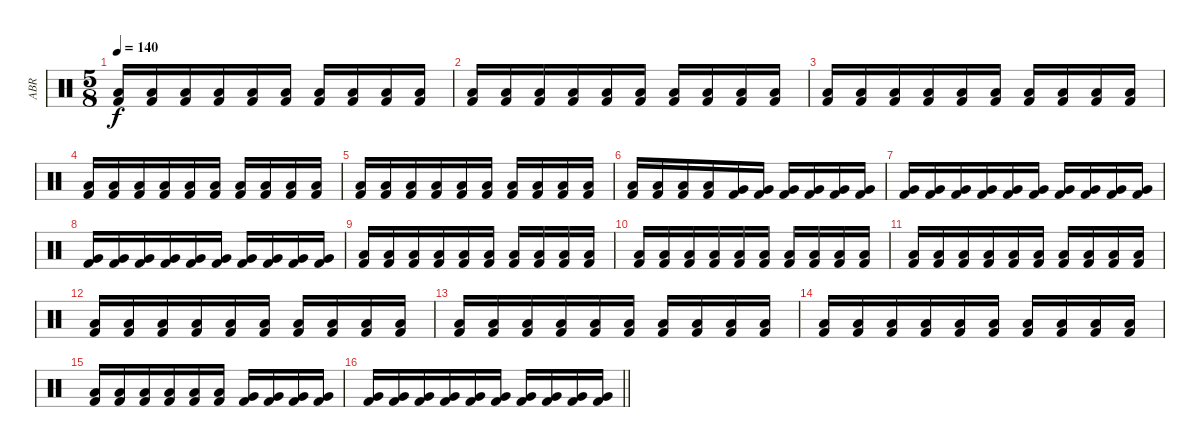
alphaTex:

\track ("ABR" "ABR") {instrument percussion}
\staff {score}
\articulation defaults
\ts (5 8)
\tempo 140
\clef neutral
\ks c
("Low Floor Tom (hit)" "Kick (hit) 2").16{dy f volume 4} ("Low Floor Tom (hit)" "Kick (hit) 2").16 ("Low Floor Tom (hit)" "Kick (hit) 2").16 ("Low Floor Tom (hit)" "Kick (hit) 2").16 ("Low Floor Tom (hit)" "Kick (hit) 2").16 ("Low Floor Tom (hit)" "Kick (hit) 2").16 ("Low Floor Tom (hit)" "Kick (hit) 2").16 ("Low Floor Tom (hit)" "Kick (hit) 2").16 ("Low Floor Tom (hit)" "Kick (hit) 2").16 ("Low Floor Tom (hit)" "Kick (hit) 2").16 |
("Low Floor Tom (hit)" "Kick (hit) 2").16 ("Low Floor Tom (hit)" "Kick (hit) 2").16 ("Low Floor Tom (hit)" "Kick (hit) 2").16 ("Low Floor Tom (hit)" "Kick (hit) 2").16 ("Low Floor Tom (hit)" "Kick (hit) 2").16 ("Low Floor Tom (hit)" "Kick (hit) 2").16 ("Low Floor Tom (hit)" "Kick (hit) 2").16 ("Low Floor Tom (hit)" "Kick (hit) 2").16 ("Low Floor Tom (hit)" "Kick (hit) 2").16 ("Low Floor Tom (hit)" "Kick (hit) 2").16 |
("Low Floor Tom (hit)" "Kick (hit) 2").16 ("Low Floor Tom (hit)" "Kick (hit) 2").16{volume 11} ("Low Floor Tom (hit)" "Kick (hit) 2").16 ("Low Floor Tom (hit)" "Kick (hit) 2").16 ("Low Floor Tom (hit)" "Kick (hit) 2").16 ("Low Floor Tom (hit)" "Kick (hit) 2").16 ("Low Floor Tom (hit)" "Kick (hit) 2").16 ("Low Floor Tom (hit)" "Kick (hit) 2").16 ("Low Floor Tom (hit)" "Kick (hit) 2").16 ("Low Floor Tom (hit)" "Kick (hit) 2").16 |
("Low Floor Tom (hit)" "Kick (hit) 2").16{balance 8} ("Low Floor Tom (hit)" "Kick (hit) 2").16 ("Low Tom (hit)" "Kick (hit) 2").16 ("Low Tom (hit)" "Kick (hit) 2").16 ("Low Tom (hit)" "Kick (hit) 2").16 ("Low Tom (hit)" "Kick (hit) 2").16 ("Low Tom (hit)" "Kick (hit) 2").16 ("Low Tom (hit)" "Kick (hit) 2").16 ("Low Tom (hit)" "Kick (hit) 2").16 ("Low Tom (hit)" "Kick (hit) 2").16 |
("Low Tom (hit)" "Kick (hit) 2").16 ("Low Tom (hit)" "Kick (hit) 2").16 ("Low Tom (hit)" "Kick (hit) 2").16 ("Low Tom (hit)" "Kick (hit) 2").16 ("Low Tom (hit)" "Kick (hit) 2").16 ("Low Tom (hit)" "Kick (hit) 2").16 ("Low Tom (hit)" "Kick (hit) 2").16 ("Low Tom (hit)" "Kick (hit) 2").16 ("Low Tom (hit)" "Kick (hit) 2").16 ("Low Tom (hit)" "Kick (hit) 2").16 |
("Low Tom (hit)" "Kick (hit) 2").16{volume 5 balance 0} ("Low Tom (hit)" "Kick (hit) 2").16 ("Low Tom (hit)" "Kick (hit) 2").16 ("Low Tom (hit)" "Kick (hit) 2").16 ("Very Low Tom (hit)" "Kick (hit) 2").16 ("Very Low Tom (hit)" "Kick (hit) 2").16 ("Very Low Tom (hit)" "Kick (hit) 2").16 ("Very Low Tom (hit)" "Kick (hit) 2").16 ("Very Low Tom (hit)" "Kick (hit) 2").16 ("Very Low Tom (hit)" "Kick (hit) 2").16 |
("Very Low Tom (hit)" "Kick (hit) 2").16{volume 12} ("Very Low Tom (hit)" "Kick (hit) 2").16 ("Very Low Tom (hit)" "Kick (hit) 2").16 ("Very Low Tom (hit)" "Kick (hit) 2").16 ("Very Low Tom (hit)" "Kick (hit) 2").16 ("Very Low Tom (hit)" "Kick (hit) 2").16 ("Very Low Tom (hit)" "Kick (hit) 2").16 ("Very Low Tom (hit)" "Kick (hit) 2").16 ("Very Low Tom (hit)" "Kick (hit) 2").16 ("Very Low Tom (hit)" "Kick (hit) 2").16 |
("Very Low Tom (hit)" "Kick (hit) 2").16 ("Very Low Tom (hit)" "Kick (hit) 2").16 ("Very Low Tom (hit)" "Kick (hit) 2").16 ("Very Low Tom (hit)" "Kick (hit) 2").16 ("Very Low Tom (hit)" "Kick (hit) 2").16 ("Very Low Tom (hit)" "Kick (hit) 2").16 ("Very Low Tom (hit)" "Kick (hit) 2").16 ("Very Low Tom (hit)" "Kick (hit) 2").16 ("Very Low Tom (hit)" "Kick (hit) 2").16 ("Very Low Tom (hit)" "Kick (hit) 2").16 |
("Low Floor Tom (hit)" "Kick (hit) 2").16{volume 4 balance 16} ("Low Floor Tom (hit)" "Kick (hit) 2").16{volume 6} ("Low Floor Tom (hit)" "Kick (hit) 2").16 ("Low Floor Tom (hit)" "Kick (hit) 2").16 ("Low Floor Tom (hit)" "Kick (hit) 2").16 ("Low Floor Tom (hit)" "Kick (hit) 2").16 ("Low Floor Tom (hit)" "Kick (hit) 2").16 ("Low Floor Tom (hit)" "Kick (hit) 2").16 ("Low Floor Tom (hit)" "Kick (hit) 2").16 ("Low Floor Tom (hit)" "Kick (hit) 2").16 |
("Low Floor Tom (hit)" "Kick (hit) 2").16{volume 8} ("Low Floor Tom (hit)" "Kick (hit) 2").16 ("Low Floor Tom (hit)" "Kick (hit) 2").16 ("Low Floor Tom (hit)" "Kick (hit) 2").16 ("Low Floor Tom (hit)" "Kick (hit) 2").16 ("Low Floor Tom (hit)" "Kick (hit) 2").16 ("Low Floor Tom (hit)" "Kick (hit) 2").16 ("Low Floor Tom (hit)" "Kick (hit) 2").16 ("Low Floor Tom (hit)" "Kick (hit) 2").16 ("Low Floor Tom (hit)" "Kick (hit) 2").16 |
("Low Floor Tom (hit)" "Kick (hit) 2").16{volume 9} ("Low Floor Tom (hit)" "Kick (hit) 2").16 ("Low Floor Tom (hit)" "Kick (hit) 2").16 ("Low Floor Tom (hit)" "Kick (hit) 2").16 ("Low Floor Tom (hit)" "Kick (hit) 2").16 ("Low Floor Tom (hit)" "Kick (hit) 2").16 ("Low Floor Tom (hit)" "Kick (hit) 2").16 ("Low Floor Tom (hit)" "Kick (hit) 2").16 ("Low Floor Tom (hit)" "Kick (hit) 2").16 ("Low Floor Tom (hit)" "Kick (hit) 2").16 |
("Low Floor Tom (hit)" "Kick (hit) 2").16 ("Low Floor Tom (hit)" "Kick (hit) 2").16 ("Low Floor Tom (hit)" "Kick (hit) 2").16 ("Low Floor Tom (hit)" "Kick (hit) 2").16 ("Low Floor Tom (hit)" "Kick (hit) 2").16 ("Low Floor Tom (hit)" "Kick (hit) 2").16 ("Low Floor Tom (hit)" "Kick (hit) 2").16 ("Low Floor Tom (hit)" "Kick (hit) 2").16 ("Low Floor Tom (hit)" "Kick (hit) 2").16 ("Low Floor Tom (hit)" "Kick (hit) 2").16 |
("Low Floor Tom (hit)" "Kick (hit) 2").16 ("Low Floor Tom (hit)" "Kick (hit) 2").16{volume 11} ("Low Floor Tom (hit)" "Kick (hit) 2").16 ("Low Floor Tom (hit)" "Kick (hit) 2").16 ("Low Floor Tom (hit)" "Kick (hit) 2").16 ("Low Floor Tom (hit)" "Kick (hit) 2").16 ("Low Floor Tom (hit)" "Kick (hit) 2").16 ("Low Floor Tom (hit)" "Kick (hit) 2").16 ("Low Floor Tom (hit)" "Kick (hit) 2").16 ("Low Floor Tom (hit)" "Kick (hit) 2").16 |
("Low Floor Tom (hit)" "Kick (hit) 2").16{balance 8} ("Low Floor Tom (hit)" "Kick (hit) 2").16 ("Low Tom (hit)" "Kick (hit) 2").16 ("Low Tom (hit)" "Kick (hit) 2").16 ("Low Tom (hit)" "Kick (hit) 2").16 ("Low Tom (hit)" "Kick (hit) 2").16 ("Low Tom (hit)" "Kick (hit) 2").16 ("Low Tom (hit)" "Kick (hit) 2").16 ("Low Tom (hit)" "Kick (hit) 2").16 ("Low Tom (hit)" "Kick (hit) 2").16 |
("Low Tom (hit)" "Kick (hit) 2").16{volume 16} ("Low Tom (hit)" "Kick (hit) 2").16 ("Low Tom (hit)" "Kick (hit) 2").16 ("Low Tom (hit)" "Kick (hit) 2").16 ("Low Tom (hit)" "Kick (hit) 2").16 ("Low Tom (hit)" "Kick (hit) 2").16 ("Very Low Tom (hit)" "Kick (hit) 2").16 ("Very Low Tom (hit)" "Kick (hit) 2").16 ("Very Low Tom (hit)" "Kick (hit) 2").16 ("Very Low Tom (hit)" "Kick (hit) 2").16 |
\barLineRight lightlight
("Very Low Tom (hit)" "Kick (hit) 2").16{balance 0} ("Very Low Tom (hit)" "Kick (hit) 2").16 ("Very Low Tom (hit)" "Kick (hit) 2").16 ("Very Low Tom (hit)" "Kick (hit) 2").16 ("Very Low Tom (hit)" "Kick (hit) 2").16 ("Very Low Tom (hit)" "Kick (hit) 2").16 ("Very Low Tom (hit)" "Kick (hit) 2").16 ("Very Low Tom (hit)" "Kick (hit) 2").16 ("Very Low Tom (hit)" "Kick (hit) 2").16 ("Very Low Tom (hit)" "Kick (hit) 2").16
